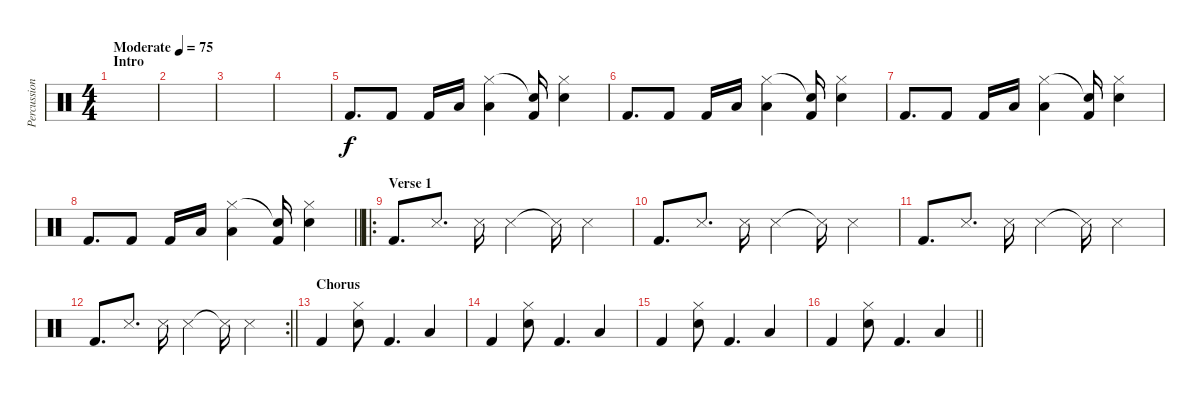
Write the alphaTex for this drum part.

\track ("Percussion (Lemuel)" "Percussion") {instrument percussion}
\staff {score}
\articulation defaults
\ts (4 4)
\section ("" "Intro")
\tempo (75 "Moderate")
\clef neutral
\ks c
|
|
|
|
"Kick (hit) 2".8{d} "Kick (hit) 2".8 "Kick (hit) 2".16 "Low Tom (hit)".16 ("Low Tom (hit)" "Hi-Hat (closed)").4 ("Kick (hit) 2" "Snare (hit)"{t}).16 ("Electric Snare (hit)" "Hi-Hat (closed)").4 |
"Kick (hit) 2".8{d} "Kick (hit) 2".8 "Kick (hit) 2".16 "Low Tom (hit)".16 ("Low Tom (hit)" "Hi-Hat (closed)").4 ("Kick (hit) 2" "Snare (hit)"{t}).16 ("Electric Snare (hit)" "Hi-Hat (closed)").4 |
"Kick (hit) 2".8{d} "Kick (hit) 2".8 "Kick (hit) 2".16 "Low Tom (hit)".16 ("Low Tom (hit)" "Hi-Hat (closed)").4 ("Kick (hit) 2" "Snare (hit)"{t}).16 ("Electric Snare (hit)" "Hi-Hat (closed)").4 |
\barLineRight lightlight "Kick (hit) 2".8{d} "Kick (hit) 2".8 "Kick (hit) 2".16 "Low Tom (hit)".16
("Low Tom (hit)" "Hi-Hat (closed)").4 ("Kick (hit) 2" "Snare (hit)"{t}).16 ("Electric Snare (hit)" "Hi-Hat (closed)").4 |
\ro
\section ("" "Verse 1")
"Kick (hit) 2".8{d} "Snare (side stick) 3".8{d} "Snare (side stick) 3".16 "Snare (side stick) 3".4 "Snare (side stick) 3"{t}.16 "Snare (side stick) 3".4 |
"Kick (hit) 2".8{d} "Snare (side stick) 3".8{d} "Snare (side stick) 3".16 "Snare (side stick) 3".4 "Snare (side stick) 3"{t}.16 "Snare (side stick) 3".4 |
"Kick (hit) 2".8{d} "Snare (side stick) 3".8{d} "Snare (side stick) 3".16 "Snare (side stick) 3".4 "Snare (side stick) 3"{t}.16 "Snare (side stick) 3".4 |
\rc 2
\barLineRight lightlight "Kick (hit) 2".8{d} "Snare (side stick) 3".8{d} "Snare (side stick) 3".16 "Snare (side stick) 3".4 "Snare (side stick) 3"{t}.16 "Snare (side stick) 3".4
|
\section ("" "Chorus")
"Kick (hit) 2".4 ("Electric Snare (hit)" "Hi-Hat (closed)").8 "Kick (hit) 2".4{d} "Low Tom (hit)".4 |
"Kick (hit) 2".4 ("Electric Snare (hit)" "Hi-Hat (closed)").8 "Kick (hit) 2".4{d} "Low Tom (hit)".4 |
"Kick (hit) 2".4 ("Electric Snare (hit)" "Hi-Hat (closed)").8 "Kick (hit) 2".4{d} "Low Tom (hit)".4 |
\barLineRight lightlight "Kick (hit) 2".4
("Electric Snare (hit)" "Hi-Hat (closed)").8 "Kick (hit) 2".4{d} "Low Tom (hit)".4
